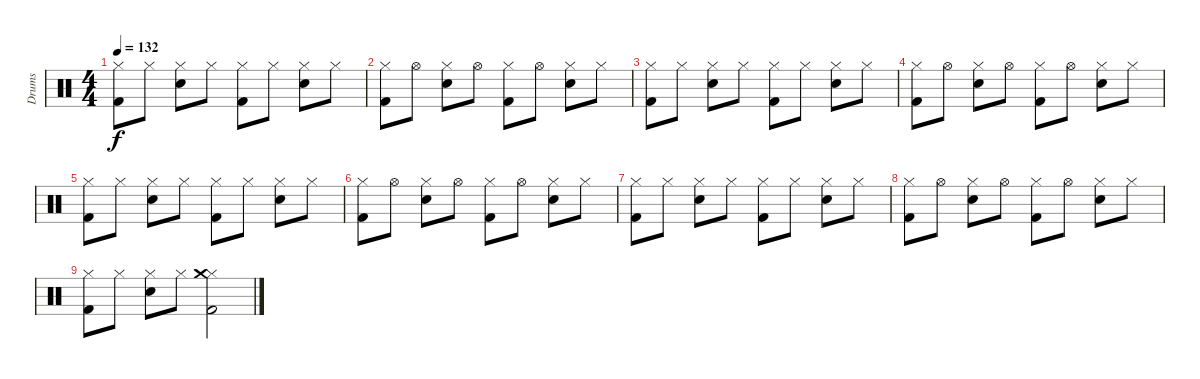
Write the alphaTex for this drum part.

\track ("Drums" "Drums") {instrument percussion}
\staff {score}
\articulation defaults
\ts (4 4)
\tempo 132
\clef neutral
\ks c
("Kick (hit) 2" "Hi-Hat (closed)").8{dy f} "Hi-Hat (closed)".8 ("Electric Snare (hit)" "Hi-Hat (closed)").8 "Hi-Hat (closed)".8 ("Kick (hit) 2" "Hi-Hat (closed)").8 "Hi-Hat (closed)".8 ("Electric Snare (hit)" "Hi-Hat (closed)").8 "Hi-Hat (closed)".8 |
("Kick (hit) 2" "Hi-Hat (closed)").8 "Hi-Hat (open)".8 ("Electric Snare (hit)" "Hi-Hat (closed)").8 "Hi-Hat (open)".8 ("Kick (hit) 2" "Hi-Hat (closed)").8 "Hi-Hat (open)".8 ("Electric Snare (hit)" "Hi-Hat (closed)").8 "Hi-Hat (closed)".8 |
("Kick (hit) 2" "Hi-Hat (closed)").8 "Hi-Hat (closed)".8 ("Electric Snare (hit)" "Hi-Hat (closed)").8 "Hi-Hat (closed)".8 ("Kick (hit) 2" "Hi-Hat (closed)").8 "Hi-Hat (closed)".8 ("Electric Snare (hit)" "Hi-Hat (closed)").8 "Hi-Hat (closed)".8 |
("Kick (hit) 2" "Hi-Hat (closed)").8 "Hi-Hat (open)".8 ("Electric Snare (hit)" "Hi-Hat (closed)").8 "Hi-Hat (open)".8 ("Kick (hit) 2" "Hi-Hat (closed)").8 "Hi-Hat (open)".8 ("Electric Snare (hit)" "Hi-Hat (closed)").8 "Hi-Hat (closed)".8 |
("Kick (hit) 2" "Hi-Hat (closed)").8 "Hi-Hat (closed)".8 ("Electric Snare (hit)" "Hi-Hat (closed)").8 "Hi-Hat (closed)".8 ("Kick (hit) 2" "Hi-Hat (closed)").8 "Hi-Hat (closed)".8 ("Electric Snare (hit)" "Hi-Hat (closed)").8 "Hi-Hat (closed)".8 |
("Kick (hit) 2" "Hi-Hat (closed)").8 "Hi-Hat (open)".8 ("Electric Snare (hit)" "Hi-Hat (closed)").8 "Hi-Hat (open)".8 ("Kick (hit) 2" "Hi-Hat (closed)").8 "Hi-Hat (open)".8 ("Electric Snare (hit)" "Hi-Hat (closed)").8 "Hi-Hat (closed)".8 |
("Kick (hit) 2" "Hi-Hat (closed)").8 "Hi-Hat (closed)".8 ("Electric Snare (hit)" "Hi-Hat (closed)").8 "Hi-Hat (closed)".8 ("Kick (hit) 2" "Hi-Hat (closed)").8 "Hi-Hat (closed)".8 ("Electric Snare (hit)" "Hi-Hat (closed)").8 "Hi-Hat (closed)".8 |
("Kick (hit) 2" "Hi-Hat (closed)").8 "Hi-Hat (open)".8 ("Electric Snare (hit)" "Hi-Hat (closed)").8 "Hi-Hat (open)".8 ("Kick (hit) 2" "Hi-Hat (closed)").8 "Hi-Hat (open)".8 ("Electric Snare (hit)" "Hi-Hat (closed)").8 "Hi-Hat (closed)".8 |
("Kick (hit) 2" "Hi-Hat (closed)").8 "Hi-Hat (closed)".8 ("Electric Snare (hit)" "Hi-Hat (closed)").8 "Hi-Hat (closed)".8 ("Kick (hit) 2" "Hi-Hat (closed)" "Crash medium (hit)").2
